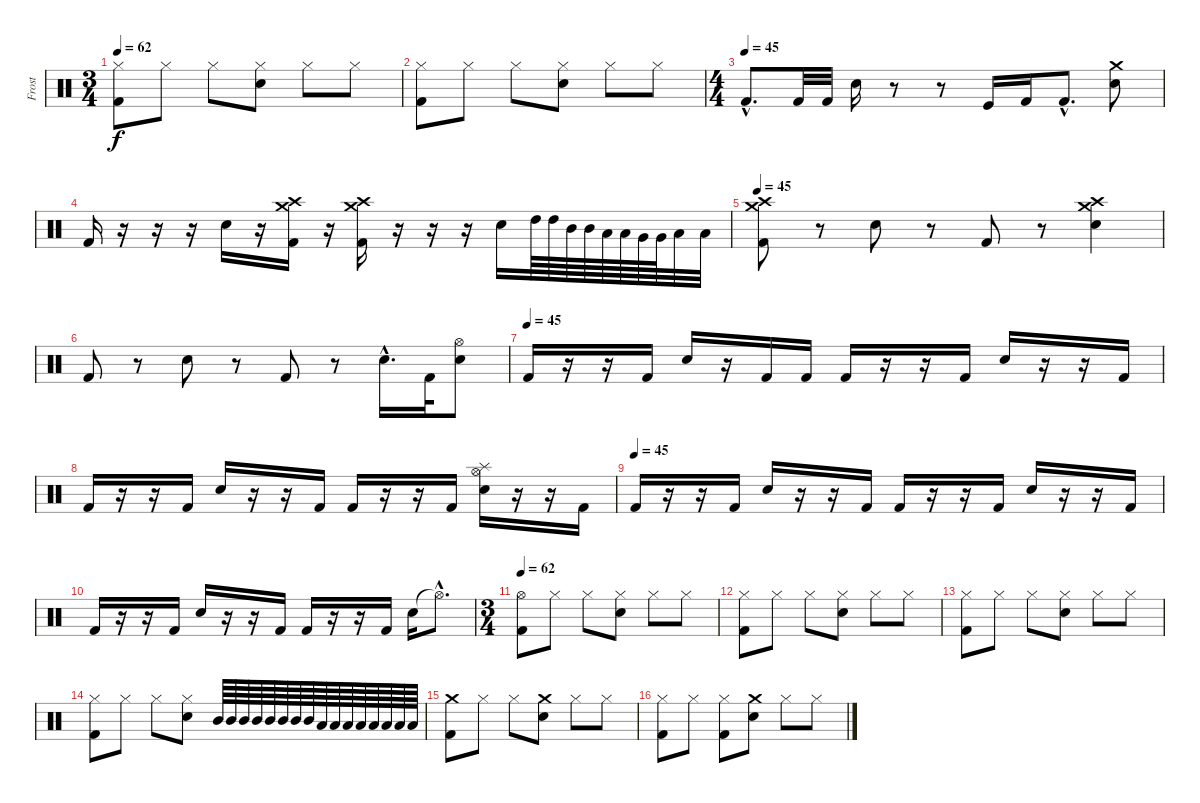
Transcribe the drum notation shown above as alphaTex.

\track ("Frost" "Frost") {instrument percussion}
\staff {score}
\articulation defaults
\ts (3 4)
\tempo 62
\clef neutral
\ks c
("Hi-Hat (closed)" "Kick (hit) 2").8{dy f} "Hi-Hat (closed)".8 "Hi-Hat (closed)".8 ("Hi-Hat (closed)" "Electric Snare (hit)").8 "Hi-Hat (closed)".8 "Hi-Hat (closed)".8 |
("Hi-Hat (closed)" "Kick (hit) 2").8 "Hi-Hat (closed)".8 "Hi-Hat (closed)".8 ("Hi-Hat (closed)" "Electric Snare (hit)").8 "Hi-Hat (closed)".8 "Hi-Hat (closed)".8 |
\ts (4 4)
\tempo (45)
"Kick (hit) 2"{hac}.8{d} "Kick (hit) 2".32 "Kick (hit) 2".32 "Electric Snare (hit)".16 r.8 r.8 "Kick (hit)".16 "Kick (hit) 2".16 "Kick (hit) 2"{hac}.8{d} ("Electric Snare (hit)" "Crash medium (hit)").8 |
"Kick (hit) 2".16 r.16 r.16 r.16 "Electric Snare (hit)".16 r.16 ("Kick (hit) 2" "Crash high (hit)" "Crash medium (hit)").16 r.16 ("Kick (hit) 2" "Crash high (hit)" "Crash medium (hit)").16 r.16 r.16 r.16 "Electric Snare (hit)".16 "High Tom (hit)".64 "High Tom (hit)".64 "Mid Tom (hit)".64 "Mid Tom (hit)".64 "Low Tom (hit)".64 "Low Tom (hit)".64 "Very Low Tom (hit)".64 "Very Low Tom (hit)".64 "Low Floor Tom (hit)".32 "Low Floor Tom (hit)".32 |
\tempo 45
("Kick (hit) 2" "Crash medium (hit)" "Crash high (hit)").8 r.8 "Electric Snare (hit)".8 r.8 "Kick (hit) 2".8 r.8 ("Electric Snare (hit)" "Crash high (hit)" "Crash medium (hit)").4 |
"Kick (hit) 2".8 r.8 "Electric Snare (hit)".8 r.8 "Kick (hit) 2".8 r.8 "Electric Snare (hit)"{hac}.16{d} "Kick (hit) 2".32 ("Electric Snare (hit)" "Hi-Hat (open)").8 |
\tempo (45)
"Kick (hit) 2".16 r.16 r.16 "Kick (hit) 2".16 "Electric Snare (hit)".16 r.16 "Kick (hit) 2".16 "Kick (hit) 2".16 "Kick (hit) 2".16 r.16 r.16 "Kick (hit) 2".16 "Electric Snare (hit)".16 r.16 r.16 "Kick (hit) 2".16 |
"Kick (hit) 2".16 r.16 r.16 "Kick (hit) 2".16 "Electric Snare (hit)".16 r.16 r.16 "Kick (hit) 2".16 "Kick (hit) 2".16 r.16 r.16 "Kick (hit) 2".16 ("Electric Snare (hit)" "Hi-Hat (open)" "Splash (hit)").16 r.16 r.16 "Kick (hit) 2".16 |
\tempo (45)
"Kick (hit) 2".16 r.16 r.16 "Kick (hit) 2".16 "Electric Snare (hit)".16 r.16 r.16 "Kick (hit) 2".16 "Kick (hit) 2".16 r.16 r.16 "Kick (hit) 2".16 "Electric Snare (hit)".16 r.16 r.16 "Kick (hit) 2".16 |
"Kick (hit) 2".16 r.16 r.16 "Kick (hit) 2".16 "Electric Snare (hit)".16 r.16 r.16 "Kick (hit) 2".16 "Kick (hit) 2".16 r.16 r.16 "Kick (hit) 2".16 "Electric Snare (hit)".16 "Hi-Hat (open)"{hac t}.8{d} |
\ts (3 4)
\tempo 62
("Hi-Hat (open)" "Kick (hit) 2").8 "Hi-Hat (closed)".8 "Hi-Hat (closed)".8 ("Hi-Hat (closed)" "Electric Snare (hit)").8 "Hi-Hat (closed)".8 "Hi-Hat (closed)".8 |
("Hi-Hat (closed)" "Kick (hit) 2").8 "Hi-Hat (closed)".8 "Hi-Hat (closed)".8 ("Hi-Hat (closed)" "Electric Snare (hit)").8 "Hi-Hat (closed)".8 "Hi-Hat (closed)".8 |
("Hi-Hat (closed)" "Kick (hit) 2").8 "Hi-Hat (closed)".8 "Hi-Hat (closed)".8 ("Hi-Hat (closed)" "Electric Snare (hit)").8 "Hi-Hat (closed)".8 "Hi-Hat (closed)".8 |
("Hi-Hat (closed)" "Kick (hit) 2").8 "Hi-Hat (closed)".8 "Hi-Hat (closed)".8 ("Hi-Hat (closed)" "Electric Snare (hit)").8 "Mid Tom (hit)".64 "Mid Tom (hit)".64 "Mid Tom (hit)".64 "Mid Tom (hit)".64 "Mid Tom (hit)".64 "Mid Tom (hit)".64 "Mid Tom (hit)".64 "Mid Tom (hit)".64 "Low Tom (hit)".64 "Low Tom (hit)".64 "Low Tom (hit)".64 "Low Tom (hit)".64 "Low Tom (hit)".64 "Low Tom (hit)".64 "Low Tom (hit)".64 "Low Tom (hit)".64 |
("Crash medium (hit)" "Kick (hit) 2").8 "Hi-Hat (closed)".8 "Hi-Hat (closed)".8 ("Crash medium (hit)" "Electric Snare (hit)").8 "Hi-Hat (closed)".8 "Hi-Hat (closed)".8 |
("Hi-Hat (closed)" "Kick (hit) 2").8 "Hi-Hat (closed)".8 ("Hi-Hat (closed)" "Kick (hit) 2").8 ("Crash medium (hit)" "Electric Snare (hit)").8 "Hi-Hat (closed)".8 "Hi-Hat (closed)".8
